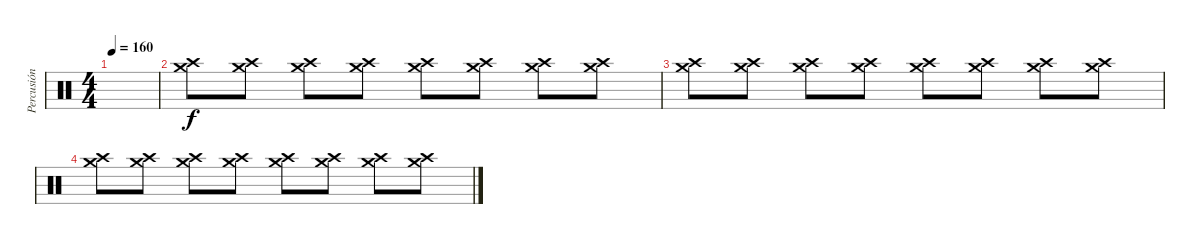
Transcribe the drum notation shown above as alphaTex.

\track ("Percusión" "Percusión") {instrument percussion}
\staff {score}
\articulation defaults
\ts (4 4)
\tempo 160
\clef neutral
\ks c
|
("Crash high (hit)" "Crash medium (hit)").8{volume 0 balance 16} ("Crash high (hit)" "Crash medium (hit)").8 ("Crash high (hit)" "Crash medium (hit)").8 ("Crash high (hit)" "Crash medium (hit)").8 ("Crash high (hit)" "Crash medium (hit)").8 ("Crash high (hit)" "Crash medium (hit)").8 ("Crash high (hit)" "Crash medium (hit)").8 ("Crash high (hit)" "Crash medium (hit)").8 |
("Crash high (hit)" "Crash medium (hit)").8{balance 0} ("Crash high (hit)" "Crash medium (hit)").8 ("Crash high (hit)" "Crash medium (hit)").8 ("Crash high (hit)" "Crash medium (hit)").8 ("Crash high (hit)" "Crash medium (hit)").8 ("Crash high (hit)" "Crash medium (hit)").8 ("Crash high (hit)" "Crash medium (hit)").8 ("Crash high (hit)" "Crash medium (hit)").8 |
("Crash high (hit)" "Crash medium (hit)").8{balance 8} ("Crash high (hit)" "Crash medium (hit)").8 ("Crash high (hit)" "Crash medium (hit)").8 ("Crash high (hit)" "Crash medium (hit)").8 ("Crash high (hit)" "Crash medium (hit)").8 ("Crash high (hit)" "Crash medium (hit)").8 ("Crash high (hit)" "Crash medium (hit)").8 ("Crash high (hit)" "Crash medium (hit)").8
